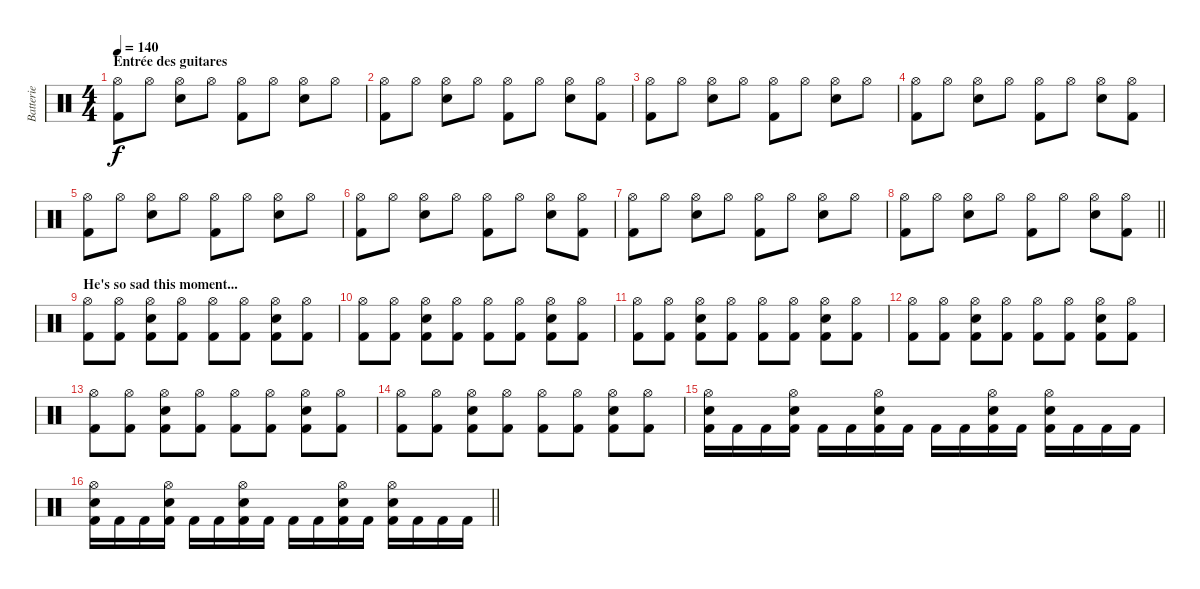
\track ("Batterie" "Batterie") {instrument percussion}
\staff {score}
\articulation defaults
\ts (4 4)
\section ("" "Entrée des guitares")
\tempo 140
\clef neutral
\ks c
("Hi-Hat (open)" "Kick (hit) 2").8{dy f} "Hi-Hat (open)".8 ("Hi-Hat (open)" "Electric Snare (hit)").8 "Hi-Hat (open)".8 ("Hi-Hat (open)" "Kick (hit) 2").8 "Hi-Hat (open)".8 ("Hi-Hat (open)" "Electric Snare (hit)").8 "Hi-Hat (open)".8 |
("Hi-Hat (open)" "Kick (hit) 2").8 "Hi-Hat (open)".8 ("Hi-Hat (open)" "Electric Snare (hit)").8 "Hi-Hat (open)".8 ("Hi-Hat (open)" "Kick (hit) 2").8 "Hi-Hat (open)".8 ("Hi-Hat (open)" "Electric Snare (hit)").8 ("Hi-Hat (open)" "Kick (hit) 2").8 |
("Hi-Hat (open)" "Kick (hit) 2").8 "Hi-Hat (open)".8 ("Hi-Hat (open)" "Electric Snare (hit)").8 "Hi-Hat (open)".8 ("Hi-Hat (open)" "Kick (hit) 2").8 "Hi-Hat (open)".8 ("Hi-Hat (open)" "Electric Snare (hit)").8 "Hi-Hat (open)".8 |
("Hi-Hat (open)" "Kick (hit) 2").8 "Hi-Hat (open)".8 ("Hi-Hat (open)" "Electric Snare (hit)").8 "Hi-Hat (open)".8 ("Hi-Hat (open)" "Kick (hit) 2").8 "Hi-Hat (open)".8 ("Hi-Hat (open)" "Electric Snare (hit)").8 ("Hi-Hat (open)" "Kick (hit) 2").8 |
("Hi-Hat (open)" "Kick (hit) 2").8 "Hi-Hat (open)".8 ("Hi-Hat (open)" "Electric Snare (hit)").8 "Hi-Hat (open)".8 ("Hi-Hat (open)" "Kick (hit) 2").8 "Hi-Hat (open)".8 ("Hi-Hat (open)" "Electric Snare (hit)").8 "Hi-Hat (open)".8 |
("Hi-Hat (open)" "Kick (hit) 2").8 "Hi-Hat (open)".8 ("Hi-Hat (open)" "Electric Snare (hit)").8 "Hi-Hat (open)".8 ("Hi-Hat (open)" "Kick (hit) 2").8 "Hi-Hat (open)".8 ("Hi-Hat (open)" "Electric Snare (hit)").8 ("Hi-Hat (open)" "Kick (hit) 2").8 |
("Hi-Hat (open)" "Kick (hit) 2").8 "Hi-Hat (open)".8 ("Hi-Hat (open)" "Electric Snare (hit)").8 "Hi-Hat (open)".8 ("Hi-Hat (open)" "Kick (hit) 2").8 "Hi-Hat (open)".8 ("Hi-Hat (open)" "Electric Snare (hit)").8 "Hi-Hat (open)".8 |
\barLineRight lightlight
("Hi-Hat (open)" "Kick (hit) 2").8 "Hi-Hat (open)".8 ("Hi-Hat (open)" "Electric Snare (hit)").8 "Hi-Hat (open)".8 ("Hi-Hat (open)" "Kick (hit) 2").8 "Hi-Hat (open)".8 ("Hi-Hat (open)" "Electric Snare (hit)").8 ("Hi-Hat (open)" "Kick (hit) 2").8 |
\section ("" "He's so sad this moment...")
("Hi-Hat (open)" "Kick (hit) 2").8 ("Hi-Hat (open)" "Kick (hit) 2").8 ("Hi-Hat (open)" "Electric Snare (hit)" "Kick (hit) 2").8 ("Hi-Hat (open)" "Kick (hit) 2").8 ("Hi-Hat (open)" "Kick (hit) 2").8 ("Hi-Hat (open)" "Kick (hit) 2").8 ("Hi-Hat (open)" "Electric Snare (hit)" "Kick (hit) 2").8 ("Hi-Hat (open)" "Kick (hit) 2").8 |
("Hi-Hat (open)" "Kick (hit) 2").8 ("Hi-Hat (open)" "Kick (hit) 2").8 ("Hi-Hat (open)" "Electric Snare (hit)" "Kick (hit) 2").8 ("Hi-Hat (open)" "Kick (hit) 2").8 ("Hi-Hat (open)" "Kick (hit) 2").8 ("Hi-Hat (open)" "Kick (hit) 2").8 ("Hi-Hat (open)" "Electric Snare (hit)" "Kick (hit) 2").8 ("Hi-Hat (open)" "Kick (hit) 2").8 |
("Hi-Hat (open)" "Kick (hit) 2").8 ("Hi-Hat (open)" "Kick (hit) 2").8 ("Hi-Hat (open)" "Electric Snare (hit)" "Kick (hit) 2").8 ("Hi-Hat (open)" "Kick (hit) 2").8 ("Hi-Hat (open)" "Kick (hit) 2").8 ("Hi-Hat (open)" "Kick (hit) 2").8 ("Hi-Hat (open)" "Electric Snare (hit)" "Kick (hit) 2").8 ("Hi-Hat (open)" "Kick (hit) 2").8 |
("Hi-Hat (open)" "Kick (hit) 2").8 ("Hi-Hat (open)" "Kick (hit) 2").8 ("Hi-Hat (open)" "Electric Snare (hit)" "Kick (hit) 2").8 ("Hi-Hat (open)" "Kick (hit) 2").8 ("Hi-Hat (open)" "Kick (hit) 2").8 ("Hi-Hat (open)" "Kick (hit) 2").8 ("Hi-Hat (open)" "Electric Snare (hit)" "Kick (hit) 2").8 ("Hi-Hat (open)" "Kick (hit) 2").8 |
("Hi-Hat (open)" "Kick (hit) 2").8 ("Hi-Hat (open)" "Kick (hit) 2").8 ("Hi-Hat (open)" "Electric Snare (hit)" "Kick (hit) 2").8 ("Hi-Hat (open)" "Kick (hit) 2").8 ("Hi-Hat (open)" "Kick (hit) 2").8 ("Hi-Hat (open)" "Kick (hit) 2").8 ("Hi-Hat (open)" "Electric Snare (hit)" "Kick (hit) 2").8 ("Hi-Hat (open)" "Kick (hit) 2").8 |
("Hi-Hat (open)" "Kick (hit) 2").8 ("Hi-Hat (open)" "Kick (hit) 2").8 ("Hi-Hat (open)" "Electric Snare (hit)" "Kick (hit) 2").8 ("Hi-Hat (open)" "Kick (hit) 2").8 ("Hi-Hat (open)" "Kick (hit) 2").8 ("Hi-Hat (open)" "Kick (hit) 2").8 ("Hi-Hat (open)" "Electric Snare (hit)" "Kick (hit) 2").8 ("Hi-Hat (open)" "Kick (hit) 2").8 |
("Hi-Hat (open)" "Electric Snare (hit)" "Kick (hit) 2").16 "Kick (hit) 2".16 "Kick (hit) 2".16 ("Hi-Hat (open)" "Electric Snare (hit)" "Kick (hit) 2").16 "Kick (hit) 2".16 "Kick (hit) 2".16 ("Hi-Hat (open)" "Electric Snare (hit)" "Kick (hit) 2").16 "Kick (hit) 2".16 "Kick (hit) 2".16 "Kick (hit) 2".16 ("Hi-Hat (open)" "Electric Snare (hit)" "Kick (hit) 2").16 "Kick (hit) 2".16 ("Hi-Hat (open)" "Electric Snare (hit)" "Kick (hit) 2").16 "Kick (hit) 2".16 "Kick (hit) 2".16 "Kick (hit) 2".16 |
\barLineRight lightlight
("Hi-Hat (open)" "Electric Snare (hit)" "Kick (hit) 2").16 "Kick (hit) 2".16 "Kick (hit) 2".16 ("Hi-Hat (open)" "Electric Snare (hit)" "Kick (hit) 2").16 "Kick (hit) 2".16 "Kick (hit) 2".16 ("Hi-Hat (open)" "Electric Snare (hit)" "Kick (hit) 2").16 "Kick (hit) 2".16 "Kick (hit) 2".16 "Kick (hit) 2".16 ("Hi-Hat (open)" "Electric Snare (hit)" "Kick (hit) 2").16 "Kick (hit) 2".16 ("Hi-Hat (open)" "Electric Snare (hit)" "Kick (hit) 2").16 "Kick (hit) 2".16 "Kick (hit) 2".16 "Kick (hit) 2".16
